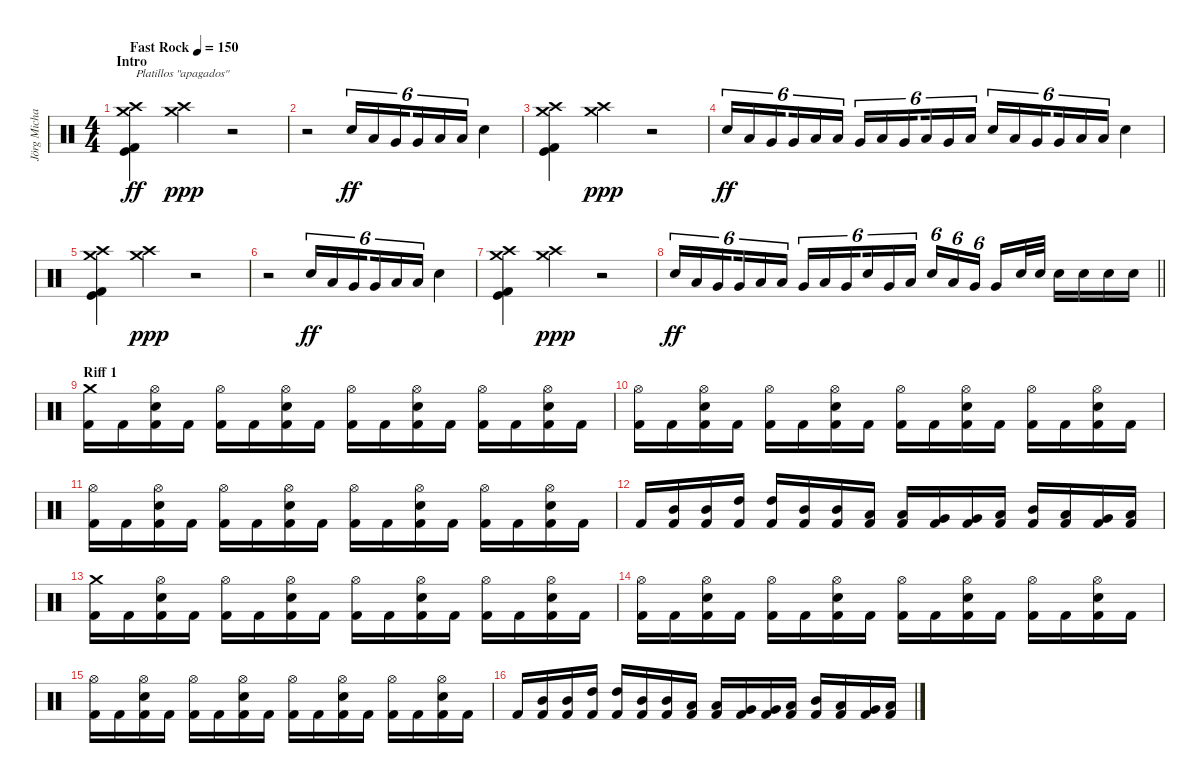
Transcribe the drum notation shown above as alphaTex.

\track ("Jörg Michael" "Jörg Micha") {instrument percussion}
\staff {score}
\articulation defaults
\ts (4 4)
\section ("" "Intro")
\tempo (150 "Fast Rock")
\clef neutral
\ks c
("Crash medium (hit)" "Crash high (hit)" "Kick (hit)" "Kick (hit) 2").4{txt "Platillos \"apagados\"" dy ff} ("Crash medium (hit)" "Crash high (hit)").4{dy ppp} r.2 |
r.2 "Electric Snare (hit)".16{tu (6 4) dy ff} "Low Tom (hit)".16{tu (6 4)} "Very Low Tom (hit)".16{tu (6 4) beam splitsecondary} "Very Low Tom (hit)".16{tu (6 4)} "Low Floor Tom (hit)".16{tu (6 4)} "Low Floor Tom (hit)".16{tu (6 4)} "Electric Snare (hit)".4 |
("Crash medium (hit)" "Crash high (hit)" "Kick (hit)" "Kick (hit) 2").4 ("Crash medium (hit)" "Crash high (hit)").4{dy ppp} r.2 |
"Electric Snare (hit)".16{tu (6 4) dy ff} "Low Tom (hit)".16{tu (6 4)} "Very Low Tom (hit)".16{tu (6 4) beam splitsecondary} "Very Low Tom (hit)".16{tu (6 4)} "Low Floor Tom (hit)".16{tu (6 4)} "Low Floor Tom (hit)".16{tu (6 4)} "Very Low Tom (hit)".16{tu (6 4)} "Low Floor Tom (hit)".16{tu (6 4)} "Very Low Tom (hit)".16{tu (6 4) beam splitsecondary} "Low Floor Tom (hit)".16{tu (6 4)} "Very Low Tom (hit)".16{tu (6 4)} "Low Floor Tom (hit)".16{tu (6 4)} "Electric Snare (hit)".16{tu (6 4)} "Low Tom (hit)".16{tu (6 4)} "Very Low Tom (hit)".16{tu (6 4) beam splitsecondary} "Very Low Tom (hit)".16{tu (6 4)} "Low Floor Tom (hit)".16{tu (6 4)} "Low Floor Tom (hit)".16{tu (6 4)} "Electric Snare (hit)".4 |
("Crash medium (hit)" "Crash high (hit)" "Kick (hit)" "Kick (hit) 2").4 ("Crash medium (hit)" "Crash high (hit)").4{dy ppp} r.2 |
r.2 "Electric Snare (hit)".16{tu (6 4) dy ff} "Low Tom (hit)".16{tu (6 4)} "Very Low Tom (hit)".16{tu (6 4) beam splitsecondary} "Very Low Tom (hit)".16{tu (6 4)} "Low Floor Tom (hit)".16{tu (6 4)} "Low Floor Tom (hit)".16{tu (6 4)} "Electric Snare (hit)".4 |
("Crash medium (hit)" "Crash high (hit)" "Kick (hit)" "Kick (hit) 2").4 ("Crash medium (hit)" "Crash high (hit)").4{dy ppp} r.2 |
\barLineRight lightlight "Electric Snare (hit)".16{tu (6 4) dy ff} "Low Tom (hit)".16{tu (6 4)} "Very Low Tom (hit)".16{tu (6 4) beam splitsecondary} "Very Low Tom (hit)".16{tu (6 4)} "Low Floor Tom (hit)".16{tu (6 4)} "Low Floor Tom (hit)".16{tu (6 4)} "Very Low Tom (hit)".16{tu (6 4)} "Low Floor Tom (hit)".16{tu (6 4)} "Very Low Tom (hit)".16{tu (6 4) beam splitsecondary} "Electric Snare (hit)".16{tu (6 4)} "Very Low Tom (hit)".16{tu (6 4)} "Low Floor Tom (hit)".16{tu (6 4)} "Electric Snare (hit)".16{tu (6 4)} "Low Tom (hit)".16{tu (6 4)} "Very Low Tom (hit)".16{tu (6 4) beam splitsecondary} "Very Low Tom (hit)".16 "Electric Snare (hit)".32 "Electric Snare (hit)".32 "Electric Snare (hit)".16 "Electric Snare (hit)".16 "Electric Snare (hit)".16 "Electric Snare (hit)".16
|
\section ("" "Riff 1")
("Crash medium (hit)" "Kick (hit) 2").16 "Kick (hit) 2".16 ("Hi-Hat (open)" "Electric Snare (hit)" "Kick (hit) 2").16 "Kick (hit) 2".16 ("Hi-Hat (open)" "Kick (hit) 2").16 "Kick (hit) 2".16 ("Hi-Hat (open)" "Electric Snare (hit)" "Kick (hit) 2").16 "Kick (hit) 2".16 ("Hi-Hat (open)" "Kick (hit) 2").16 "Kick (hit) 2".16 ("Hi-Hat (open)" "Electric Snare (hit)" "Kick (hit) 2").16 "Kick (hit) 2".16 ("Hi-Hat (open)" "Kick (hit) 2").16 "Kick (hit) 2".16 ("Hi-Hat (open)" "Electric Snare (hit)" "Kick (hit) 2").16 "Kick (hit) 2".16 |
("Hi-Hat (open)" "Kick (hit) 2").16 "Kick (hit) 2".16 ("Hi-Hat (open)" "Electric Snare (hit)" "Kick (hit) 2").16 "Kick (hit) 2".16 ("Hi-Hat (open)" "Kick (hit) 2").16 "Kick (hit) 2".16 ("Hi-Hat (open)" "Electric Snare (hit)" "Kick (hit) 2").16 "Kick (hit) 2".16 ("Hi-Hat (open)" "Kick (hit) 2").16 "Kick (hit) 2".16 ("Hi-Hat (open)" "Electric Snare (hit)" "Kick (hit) 2").16 "Kick (hit) 2".16 ("Hi-Hat (open)" "Kick (hit) 2").16 "Kick (hit) 2".16 ("Hi-Hat (open)" "Electric Snare (hit)" "Kick (hit) 2").16 "Kick (hit) 2".16 |
("Hi-Hat (open)" "Kick (hit) 2").16 "Kick (hit) 2".16 ("Hi-Hat (open)" "Electric Snare (hit)" "Kick (hit) 2").16 "Kick (hit) 2".16 ("Hi-Hat (open)" "Kick (hit) 2").16 "Kick (hit) 2".16 ("Hi-Hat (open)" "Electric Snare (hit)" "Kick (hit) 2").16 "Kick (hit) 2".16 ("Hi-Hat (open)" "Kick (hit) 2").16 "Kick (hit) 2".16 ("Hi-Hat (open)" "Electric Snare (hit)" "Kick (hit) 2").16 "Kick (hit) 2".16 ("Hi-Hat (open)" "Kick (hit) 2").16 "Kick (hit) 2".16 ("Hi-Hat (open)" "Electric Snare (hit)" "Kick (hit) 2").16 "Kick (hit) 2".16 |
"Kick (hit) 2".16 ("Mid Tom (hit)" "Kick (hit) 2").16 ("Mid Tom (hit)" "Kick (hit) 2").16 ("High Tom (hit)" "Kick (hit) 2").16 ("High Tom (hit)" "Kick (hit) 2").16 ("Mid Tom (hit)" "Kick (hit) 2").16 ("Mid Tom (hit)" "Kick (hit) 2").16 ("Low Tom (hit)" "Kick (hit) 2").16 ("Low Tom (hit)" "Kick (hit) 2").16 ("Very Low Tom (hit)" "Kick (hit) 2").16 ("Very Low Tom (hit)" "Kick (hit) 2").16 ("Low Tom (hit)" "Kick (hit) 2").16 ("Mid Tom (hit)" "Kick (hit) 2").16 ("Low Tom (hit)" "Kick (hit) 2").16 ("Very Low Tom (hit)" "Kick (hit) 2").16 ("Low Floor Tom (hit)" "Kick (hit) 2").16 |
("Crash medium (hit)" "Kick (hit) 2").16 "Kick (hit) 2".16 ("Hi-Hat (open)" "Electric Snare (hit)" "Kick (hit) 2").16 "Kick (hit) 2".16 ("Hi-Hat (open)" "Kick (hit) 2").16 "Kick (hit) 2".16 ("Hi-Hat (open)" "Electric Snare (hit)" "Kick (hit) 2").16 "Kick (hit) 2".16 ("Hi-Hat (open)" "Kick (hit) 2").16 "Kick (hit) 2".16 ("Hi-Hat (open)" "Electric Snare (hit)" "Kick (hit) 2").16 "Kick (hit) 2".16 ("Hi-Hat (open)" "Kick (hit) 2").16 "Kick (hit) 2".16 ("Hi-Hat (open)" "Electric Snare (hit)" "Kick (hit) 2").16 "Kick (hit) 2".16 |
("Hi-Hat (open)" "Kick (hit) 2").16 "Kick (hit) 2".16 ("Hi-Hat (open)" "Electric Snare (hit)" "Kick (hit) 2").16 "Kick (hit) 2".16 ("Hi-Hat (open)" "Kick (hit) 2").16 "Kick (hit) 2".16 ("Hi-Hat (open)" "Electric Snare (hit)" "Kick (hit) 2").16 "Kick (hit) 2".16 ("Hi-Hat (open)" "Kick (hit) 2").16 "Kick (hit) 2".16 ("Hi-Hat (open)" "Electric Snare (hit)" "Kick (hit) 2").16 "Kick (hit) 2".16 ("Hi-Hat (open)" "Kick (hit) 2").16 "Kick (hit) 2".16 ("Hi-Hat (open)" "Electric Snare (hit)" "Kick (hit) 2").16 "Kick (hit) 2".16 |
("Hi-Hat (open)" "Kick (hit) 2").16 "Kick (hit) 2".16 ("Hi-Hat (open)" "Electric Snare (hit)" "Kick (hit) 2").16 "Kick (hit) 2".16 ("Hi-Hat (open)" "Kick (hit) 2").16 "Kick (hit) 2".16 ("Hi-Hat (open)" "Electric Snare (hit)" "Kick (hit) 2").16 "Kick (hit) 2".16 ("Hi-Hat (open)" "Kick (hit) 2").16 "Kick (hit) 2".16 ("Hi-Hat (open)" "Electric Snare (hit)" "Kick (hit) 2").16 "Kick (hit) 2".16 ("Hi-Hat (open)" "Kick (hit) 2").16 "Kick (hit) 2".16 ("Hi-Hat (open)" "Electric Snare (hit)" "Kick (hit) 2").16 "Kick (hit) 2".16 |
"Kick (hit) 2".16 ("Mid Tom (hit)" "Kick (hit) 2").16 ("Mid Tom (hit)" "Kick (hit) 2").16 ("High Tom (hit)" "Kick (hit) 2").16 ("High Tom (hit)" "Kick (hit) 2").16 ("Mid Tom (hit)" "Kick (hit) 2").16 ("Mid Tom (hit)" "Kick (hit) 2").16 ("Low Tom (hit)" "Kick (hit) 2").16 ("Low Tom (hit)" "Kick (hit) 2").16 ("Very Low Tom (hit)" "Kick (hit) 2").16 ("Very Low Tom (hit)" "Kick (hit) 2").16 ("Low Tom (hit)" "Kick (hit) 2").16 ("Mid Tom (hit)" "Kick (hit) 2").16 ("Low Tom (hit)" "Kick (hit) 2").16 ("Very Low Tom (hit)" "Kick (hit) 2").16 ("Low Floor Tom (hit)" "Kick (hit) 2").16
